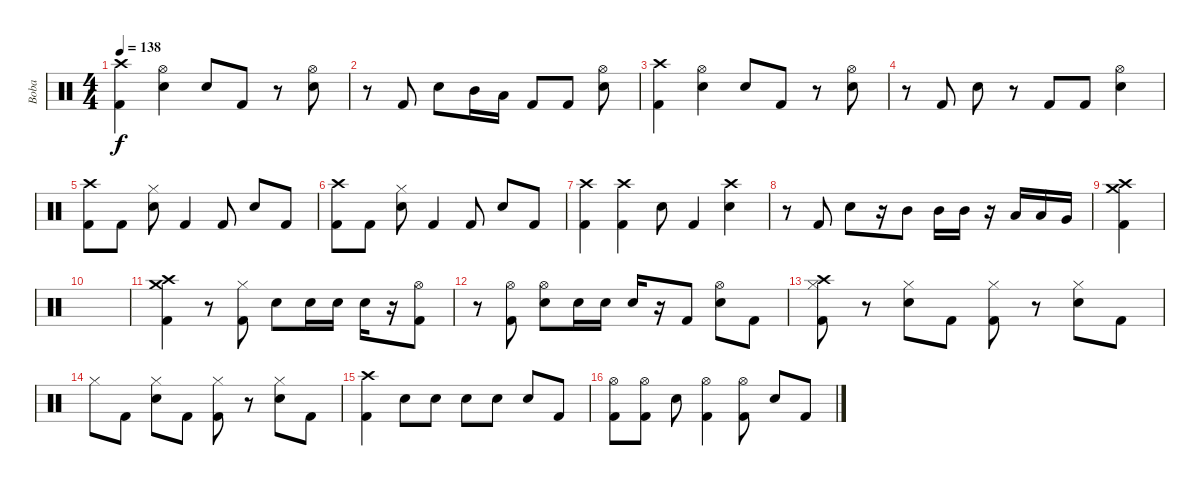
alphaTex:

\track ("Boba" "Boba") {instrument percussion}
\staff {score}
\articulation defaults
\ts (4 4)
\tempo 138
\clef neutral
\ks c
("Crash high (hit)" "Kick (hit) 2").4{dy f} ("Hi-Hat (open)" "Electric Snare (hit)").4 "Electric Snare (hit)".8 "Kick (hit) 2".8 r.8 ("Hi-Hat (open)" "Electric Snare (hit)").8 |
r.8 "Kick (hit) 2".8 "Electric Snare (hit)".8 "Mid Tom (hit)".16 "Low Tom (hit)".16 "Kick (hit) 2".8 "Kick (hit) 2".8 ("Hi-Hat (open)" "Electric Snare (hit)").8 |
("Crash high (hit)" "Kick (hit) 2").4 ("Hi-Hat (open)" "Electric Snare (hit)").4 "Electric Snare (hit)".8 "Kick (hit) 2".8 r.8 ("Hi-Hat (open)" "Electric Snare (hit)").8 |
r.8 "Kick (hit) 2".8 "Electric Snare (hit)".8 r.8 "Kick (hit) 2".8 "Kick (hit) 2".8 ("Hi-Hat (open)" "Electric Snare (hit)").4 |
("Crash high (hit)" "Kick (hit) 2").8 "Kick (hit) 2".8 ("Hi-Hat (closed)" "Electric Snare (hit)").8 "Kick (hit) 2".4 "Kick (hit) 2".8 "Electric Snare (hit)".8 "Kick (hit) 2".8 |
("Crash high (hit)" "Kick (hit) 2").8 "Kick (hit) 2".8 ("Hi-Hat (closed)" "Electric Snare (hit)").8 "Kick (hit) 2".4 "Kick (hit) 2".8 "Electric Snare (hit)".8 "Kick (hit) 2".8 |
("Crash high (hit)" "Kick (hit) 2").4 ("Crash high (hit)" "Kick (hit) 2").4 "Electric Snare (hit)".8 "Kick (hit) 2".4 ("Crash high (hit)" "Electric Snare (hit)").4 |
r.8 "Kick (hit) 2".8 "Electric Snare (hit)".8 r.16 "Mid Tom (hit)".8 "Mid Tom (hit)".16 "Mid Tom (hit)".16 r.16 "Low Tom (hit)".16 "Low Tom (hit)".16 "Very Low Tom (hit)".16 |
("Crash medium (hit)" "Crash high (hit)" "Kick (hit) 2").4 |
|
("Crash medium (hit)" "Crash high (hit)" "Kick (hit) 2").4 r.8 ("Hi-Hat (closed)" "Kick (hit) 2").8 "Electric Snare (hit)".8 "Electric Snare (hit)".16 "Electric Snare (hit)".16 "Electric Snare (hit)".16 r.16 ("Hi-Hat (open)" "Kick (hit) 2").8 |
r.8 ("Hi-Hat (open)" "Kick (hit) 2").8 ("Hi-Hat (open)" "Electric Snare (hit)").8 "Electric Snare (hit)".16 "Electric Snare (hit)".16 "Electric Snare (hit)".16 r.16 "Kick (hit) 2".8 ("Hi-Hat (open)" "Electric Snare (hit)").8 "Kick (hit) 2".8 |
("Crash high (hit)" "Hi-Hat (closed)" "Kick (hit) 2").8 r.8 ("Hi-Hat (closed)" "Electric Snare (hit)").8 "Kick (hit) 2".8 ("Hi-Hat (closed)" "Kick (hit) 2").8 r.8 ("Hi-Hat (closed)" "Electric Snare (hit)").8 "Kick (hit) 2".8 |
"Hi-Hat (closed)".8 "Kick (hit) 2".8 ("Hi-Hat (closed)" "Electric Snare (hit)").8 "Kick (hit) 2".8 ("Hi-Hat (closed)" "Kick (hit) 2").8 r.8 ("Hi-Hat (closed)" "Electric Snare (hit)").8 "Kick (hit) 2".8 |
("Crash high (hit)" "Kick (hit) 2").4 "Electric Snare (hit)".8 "Electric Snare (hit)".8 "Electric Snare (hit)".8 "Electric Snare (hit)".8 "Electric Snare (hit)".8 "Kick (hit) 2".8 |
("Hi-Hat (open)" "Kick (hit) 2").8 ("Hi-Hat (open)" "Kick (hit) 2").8 "Electric Snare (hit)".8 ("Hi-Hat (open)" "Kick (hit) 2").4 ("Hi-Hat (open)" "Kick (hit) 2").8 "Electric Snare (hit)".8 "Kick (hit) 2".8
